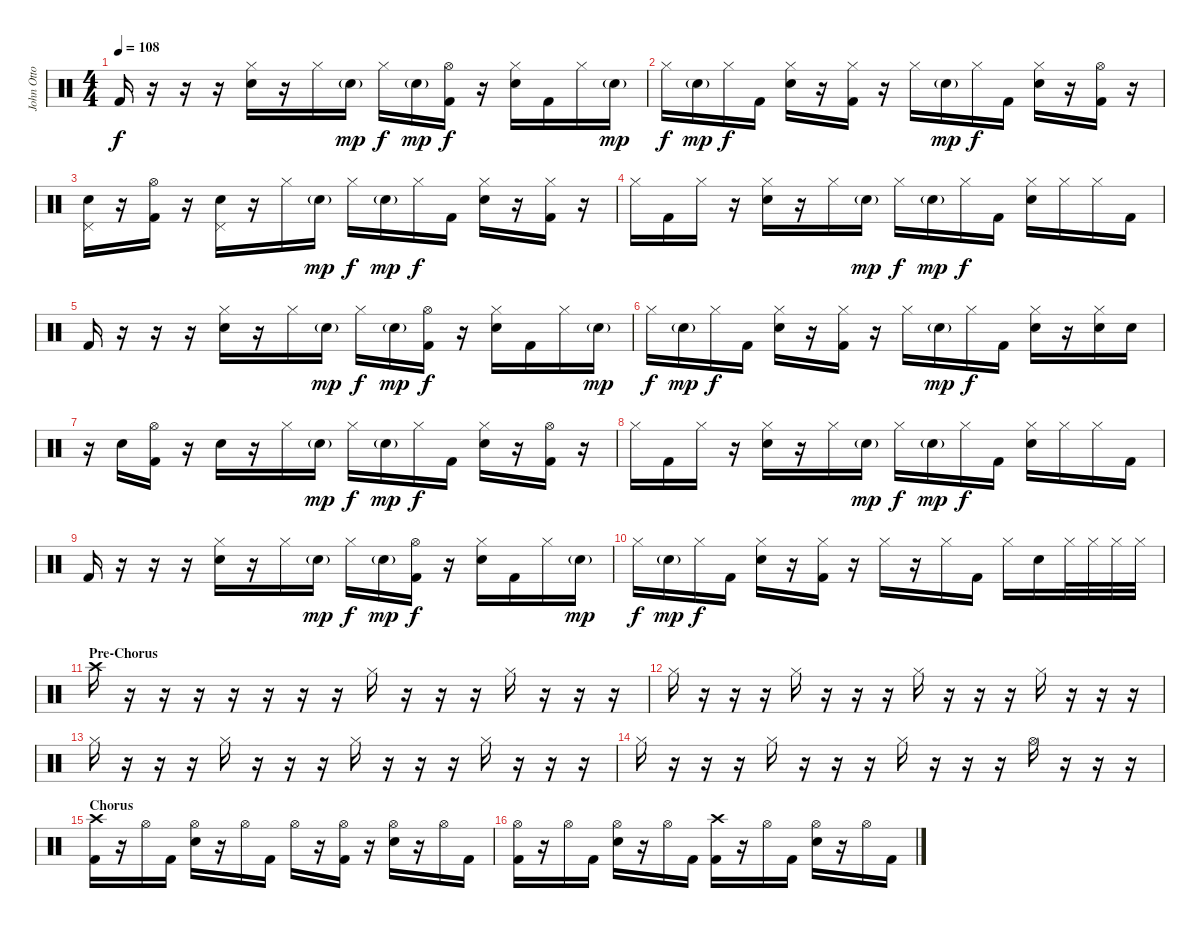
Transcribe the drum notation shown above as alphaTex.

\track ("John Otto - Drums" "John Otto ") {instrument percussion}
\staff {score}
\articulation defaults
\ts (4 4)
\tempo 108
\clef neutral
\ks c "Kick (hit) 2".16{dy f}
r.16 r.16 r.16 ("Hi-Hat (closed)" "Snare (hit) 2").16 r.16 "Hi-Hat (closed)".16 "Snare (hit) 2"{g}.16{dy mp} "Hi-Hat (closed)".16{dy f} "Snare (hit) 2"{g}.16{dy mp} ("Hi-Hat (open)" "Kick (hit) 2").16{dy f} r.16 ("Hi-Hat (closed)" "Snare (hit) 2").16 "Kick (hit) 2".16 "Hi-Hat (closed)".16 "Snare (hit) 2"{g}.16{dy mp} |
"Hi-Hat (closed)".16{dy f} "Snare (hit) 2"{g}.16{dy mp} "Hi-Hat (closed)".16{dy f} "Kick (hit) 2".16 ("Hi-Hat (closed)" "Snare (hit) 2").16 r.16 ("Hi-Hat (closed)" "Kick (hit) 2").16 r.16 "Hi-Hat (closed)".16 "Snare (hit) 2"{g}.16{dy mp} "Hi-Hat (closed)".16{dy f} "Kick (hit) 2".16 ("Hi-Hat (closed)" "Snare (hit) 2").16 r.16 ("Hi-Hat (open)" "Kick (hit) 2").16 r.16 |
("Snare (hit) 2" "Pedal Hi-Hat (hit)").16 r.16 ("Hi-Hat (open)" "Kick (hit) 2").16 r.16 ("Snare (hit) 2" "Pedal Hi-Hat (hit)").16 r.16 "Hi-Hat (closed)".16 "Snare (hit) 2"{g}.16{dy mp} "Hi-Hat (closed)".16{dy f} "Snare (hit) 2"{g}.16{dy mp} "Hi-Hat (closed)".16{dy f} "Kick (hit) 2".16 ("Hi-Hat (closed)" "Snare (hit) 2").16 r.16 ("Hi-Hat (closed)" "Kick (hit) 2").16 r.16 |
"Hi-Hat (closed)".16 "Kick (hit) 2".16 "Hi-Hat (closed)".16 r.16 ("Hi-Hat (closed)" "Snare (hit) 2").16 r.16 "Hi-Hat (closed)".16 "Snare (hit) 2"{g}.16{dy mp} "Hi-Hat (closed)".16{dy f} "Snare (hit) 2"{g}.16{dy mp} "Hi-Hat (closed)".16{dy f} "Kick (hit) 2".16 ("Hi-Hat (closed)" "Snare (hit) 2").16 "Hi-Hat (closed)".16 "Hi-Hat (closed)".16 "Kick (hit) 2".16 |
"Kick (hit) 2".16 r.16 r.16 r.16 ("Hi-Hat (closed)" "Snare (hit) 2").16 r.16 "Hi-Hat (closed)".16 "Snare (hit) 2"{g}.16{dy mp} "Hi-Hat (closed)".16{dy f} "Snare (hit) 2"{g}.16{dy mp} ("Hi-Hat (open)" "Kick (hit) 2").16{dy f} r.16 ("Hi-Hat (closed)" "Snare (hit) 2").16 "Kick (hit) 2".16 "Hi-Hat (closed)".16 "Snare (hit) 2"{g}.16{dy mp} |
"Hi-Hat (closed)".16{dy f} "Snare (hit) 2"{g}.16{dy mp} "Hi-Hat (closed)".16{dy f} "Kick (hit) 2".16 ("Hi-Hat (closed)" "Snare (hit) 2").16 r.16 ("Hi-Hat (closed)" "Kick (hit) 2").16 r.16 "Hi-Hat (closed)".16 "Snare (hit) 2"{g}.16{dy mp} "Hi-Hat (closed)".16{dy f} "Kick (hit) 2".16 ("Hi-Hat (closed)" "Snare (hit) 2").16 r.16 ("Hi-Hat (closed)" "Snare (hit) 2").16 "Snare (hit) 2".16 |
r.16 "Snare (hit) 2".16 ("Hi-Hat (open)" "Kick (hit) 2").16 r.16 "Snare (hit) 2".16 r.16 "Hi-Hat (closed)".16 "Snare (hit) 2"{g}.16{dy mp} "Hi-Hat (closed)".16{dy f} "Snare (hit) 2"{g}.16{dy mp} "Hi-Hat (closed)".16{dy f} "Kick (hit) 2".16 ("Hi-Hat (closed)" "Snare (hit) 2").16 r.16 ("Hi-Hat (open)" "Kick (hit) 2").16 r.16 |
"Hi-Hat (closed)".16 "Kick (hit) 2".16 "Hi-Hat (closed)".16 r.16 ("Hi-Hat (closed)" "Snare (hit) 2").16 r.16 "Hi-Hat (closed)".16 "Snare (hit) 2"{g}.16{dy mp} "Hi-Hat (closed)".16{dy f} "Snare (hit) 2"{g}.16{dy mp} "Hi-Hat (closed)".16{dy f} "Kick (hit) 2".16 ("Hi-Hat (closed)" "Snare (hit) 2").16 "Hi-Hat (closed)".16 "Hi-Hat (closed)".16 "Kick (hit) 2".16 |
"Kick (hit) 2".16 r.16 r.16 r.16 ("Hi-Hat (closed)" "Snare (hit) 2").16 r.16 "Hi-Hat (closed)".16 "Snare (hit) 2"{g}.16{dy mp} "Hi-Hat (closed)".16{dy f} "Snare (hit) 2"{g}.16{dy mp} ("Hi-Hat (open)" "Kick (hit) 2").16{dy f} r.16 ("Hi-Hat (closed)" "Snare (hit) 2").16 "Kick (hit) 2".16 "Hi-Hat (closed)".16 "Snare (hit) 2"{g}.16{dy mp} |
"Hi-Hat (closed)".16{dy f} "Snare (hit) 2"{g}.16{dy mp} "Hi-Hat (closed)".16{dy f} "Kick (hit) 2".16 ("Hi-Hat (closed)" "Snare (hit) 2").16 r.16 ("Hi-Hat (closed)" "Kick (hit) 2").16 r.16 "Hi-Hat (closed)".16 r.16 "Hi-Hat (closed)".16 "Kick (hit) 2".16 "Hi-Hat (closed)".16 "Snare (hit) 2".16 "Hi-Hat (closed)".32 "Hi-Hat (closed)".32 "Hi-Hat (closed)".32 "Hi-Hat (closed)".32 |
\section ("" "Pre-Chorus")
"Crash high (hit)".16 r.16 r.16 r.16 r.16 r.16 r.16 r.16 "Hi-Hat (closed)".16 r.16 r.16 r.16 "Hi-Hat (closed)".16 r.16 r.16 r.16 |
"Hi-Hat (closed)".16 r.16 r.16 r.16 "Hi-Hat (closed)".16 r.16 r.16 r.16 "Hi-Hat (closed)".16 r.16 r.16 r.16 "Hi-Hat (closed)".16 r.16 r.16 r.16 |
"Hi-Hat (closed)".16 r.16 r.16 r.16 "Hi-Hat (closed)".16 r.16 r.16 r.16 "Hi-Hat (closed)".16 r.16 r.16 r.16 "Hi-Hat (closed)".16 r.16 r.16 r.16 |
"Hi-Hat (closed)".16 r.16 r.16 r.16 "Hi-Hat (closed)".16 r.16 r.16 r.16 "Hi-Hat (closed)".16 r.16 r.16 r.16 "Hi-Hat (open)".16 r.16 r.16 r.16 |
\section ("" "Chorus")
("Crash high (hit)" "Kick (hit) 2").16 r.16 "Hi-Hat (open)".16 "Kick (hit) 2".16 ("Hi-Hat (open)" "Snare (hit) 2").16 r.16 "Hi-Hat (open)".16 "Kick (hit) 2".16 "Hi-Hat (open)".16 r.16 ("Hi-Hat (open)" "Kick (hit) 2").16 r.16 ("Hi-Hat (open)" "Snare (hit) 2").16 r.16 "Hi-Hat (open)".16 "Kick (hit) 2".16 |
("Hi-Hat (open)" "Kick (hit) 2").16 r.16 "Hi-Hat (open)".16 "Kick (hit) 2".16 ("Hi-Hat (open)" "Snare (hit) 2").16 r.16 "Hi-Hat (open)".16 "Kick (hit) 2".16 ("Crash high (hit)" "Kick (hit) 2").16 r.16 "Hi-Hat (open)".16 "Kick (hit) 2".16 ("Hi-Hat (open)" "Snare (hit) 2").16 r.16 "Hi-Hat (open)".16 "Kick (hit) 2".16
